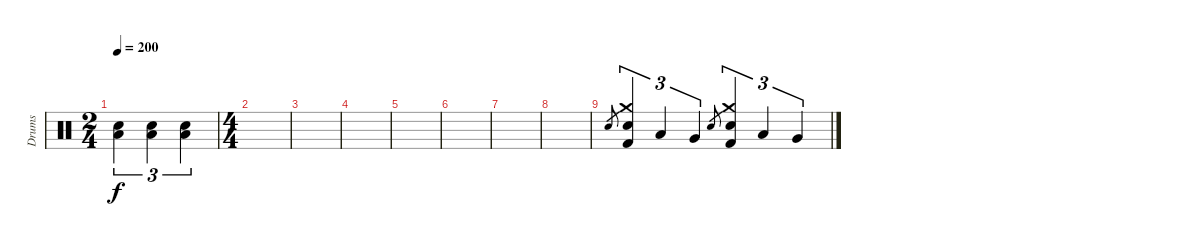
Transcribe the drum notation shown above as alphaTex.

\track ("Drums" "Drums") {instrument percussion}
\staff {score}
\articulation defaults
\ts (2 4)
\tempo 200
\clef neutral
\ks c
("Low Tom (hit)" "Electric Snare (hit)").4{tu (3 2) dy f} ("Low Tom (hit)" "Electric Snare (hit)").4{tu (3 2)} ("Low Tom (hit)" "Electric Snare (hit)").4{tu (3 2)} |
\ts (4 4)
|
|
|
|
|
|
|
"Electric Snare (hit)".8{gr} ("Crash medium (hit)" "Electric Snare (hit)" "Kick (hit) 2").4{tu (3 2)} "Low Tom (hit)".4{tu (3 2)} "Very Low Tom (hit)".4{tu (3 2)} "Electric Snare (hit)".8{gr} ("Crash medium (hit)" "Electric Snare (hit)" "Kick (hit) 2").4{tu (3 2)} "Low Tom (hit)".4{tu (3 2)} "Very Low Tom (hit)".4{tu (3 2)}
